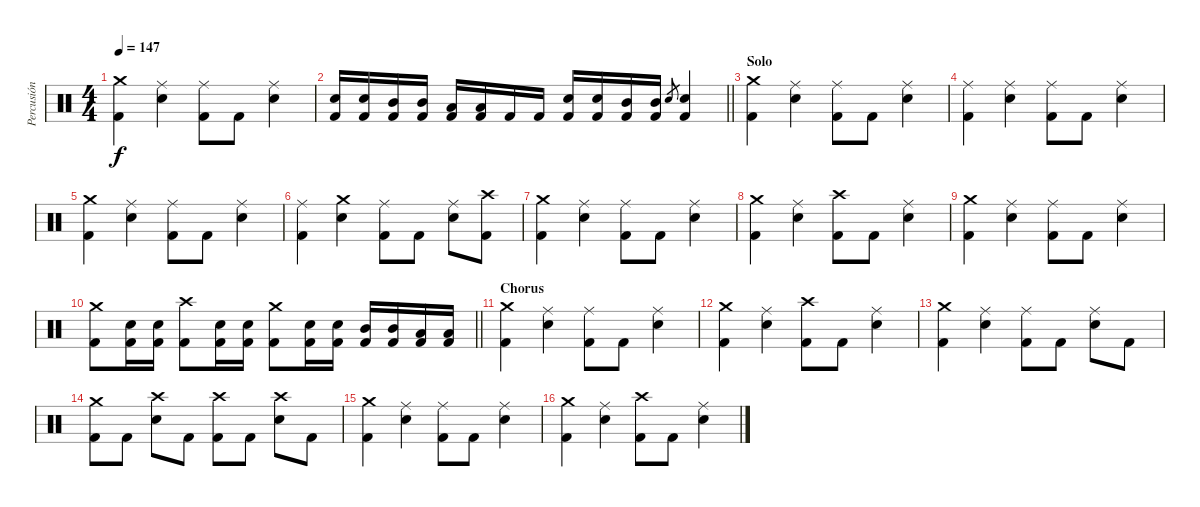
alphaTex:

\track ("Percusión" "Percusión") {instrument percussion}
\staff {score}
\articulation defaults
\ts (4 4)
\tempo 147
\clef neutral
\ks c
("Crash medium (hit)" "Kick (hit) 2").4{dy f} ("Ride (middle)" "Snare (hit) 2").4 ("Ride (middle)" "Kick (hit) 2").8 "Kick (hit) 2".8 ("Ride (middle)" "Snare (hit) 2").4 |
\barLineRight lightlight
("Snare (hit) 2" "Kick (hit) 2").16 ("Snare (hit) 2" "Kick (hit) 2").16 ("Mid Tom (hit)" "Kick (hit) 2").16 ("Mid Tom (hit)" "Kick (hit) 2").16 ("Low Tom (hit)" "Kick (hit) 2").16 ("Low Tom (hit)" "Kick (hit) 2").16 "Kick (hit) 2".16 "Kick (hit) 2".16 ("Snare (hit) 2" "Kick (hit) 2").16 ("Snare (hit) 2" "Kick (hit) 2").16 ("Mid Tom (hit)" "Kick (hit) 2").16 ("Mid Tom (hit)" "Kick (hit) 2").16 "Snare (hit) 2".8{gr} ("Snare (hit) 2" "Kick (hit) 2").4 |
\section ("" "Solo")
("Crash medium (hit)" "Kick (hit) 2").4 ("Ride (middle)" "Snare (hit) 2").4 ("Ride (middle)" "Kick (hit) 2").8 "Kick (hit) 2".8 ("Ride (middle)" "Snare (hit) 2").4 |
("Ride (middle)" "Kick (hit) 2").4 ("Ride (middle)" "Snare (hit) 2").4 ("Ride (middle)" "Kick (hit) 2").8 "Kick (hit) 2".8 ("Ride (middle)" "Snare (hit) 2").4 |
("Crash medium (hit)" "Kick (hit) 2").4 ("Ride (middle)" "Snare (hit) 2").4 ("Ride (middle)" "Kick (hit) 2").8 "Kick (hit) 2".8 ("Ride (middle)" "Snare (hit) 2").4 |
("Ride (middle)" "Kick (hit) 2").4 ("Crash medium (hit)" "Snare (hit) 2").4 ("Ride (middle)" "Kick (hit) 2").8 "Kick (hit) 2".8 ("Ride (middle)" "Snare (hit) 2").8 ("Crash high (hit)" "Kick (hit) 2").8 |
("Crash medium (hit)" "Kick (hit) 2").4 ("Ride (middle)" "Snare (hit) 2").4 ("Ride (middle)" "Kick (hit) 2").8 "Kick (hit) 2".8 ("Ride (middle)" "Snare (hit) 2").4 |
("Crash medium (hit)" "Kick (hit) 2").4 ("Ride (middle)" "Snare (hit) 2").4 ("Crash high (hit)" "Kick (hit) 2").8 "Kick (hit) 2".8 ("Ride (middle)" "Snare (hit) 2").4 |
("Crash medium (hit)" "Kick (hit) 2").4 ("Ride (middle)" "Snare (hit) 2").4 ("Ride (middle)" "Kick (hit) 2").8 "Kick (hit) 2".8 ("Ride (middle)" "Snare (hit) 2").4 |
\barLineRight lightlight
("Crash medium (hit)" "Kick (hit) 2").8 ("Snare (hit) 2" "Kick (hit) 2").16 ("Snare (hit) 2" "Kick (hit) 2").16 ("Crash high (hit)" "Kick (hit) 2").8 ("Snare (hit) 2" "Kick (hit) 2").16 ("Snare (hit) 2" "Kick (hit) 2").16 ("Crash medium (hit)" "Kick (hit) 2").8 ("Snare (hit) 2" "Kick (hit) 2").16 ("Snare (hit) 2" "Kick (hit) 2").16 ("Mid Tom (hit)" "Kick (hit) 2").16 ("Mid Tom (hit)" "Kick (hit) 2").16 ("Low Tom (hit)" "Kick (hit) 2").16 ("Low Tom (hit)" "Kick (hit) 2").16 |
\section ("" "Chorus")
("Crash medium (hit)" "Kick (hit) 2").4 ("Ride (middle)" "Snare (hit) 2").4 ("Ride (middle)" "Kick (hit) 2").8 "Kick (hit) 2".8 ("Ride (middle)" "Snare (hit) 2").4 |
("Crash medium (hit)" "Kick (hit) 2").4 ("Ride (middle)" "Snare (hit) 2").4 ("Crash high (hit)" "Kick (hit) 2").8 "Kick (hit) 2".8 ("Ride (middle)" "Snare (hit) 2").4 |
("Crash medium (hit)" "Kick (hit) 2").4 ("Ride (middle)" "Snare (hit) 2").4 ("Ride (middle)" "Kick (hit) 2").8 "Kick (hit) 2".8 ("Ride (middle)" "Snare (hit) 2").8 "Kick (hit) 2".8 |
("Crash medium (hit)" "Kick (hit) 2").8 "Kick (hit) 2".8 ("Crash high (hit)" "Snare (hit) 2").8 "Kick (hit) 2".8 ("Crash high (hit)" "Kick (hit) 2").8 "Kick (hit) 2".8 ("Crash high (hit)" "Snare (hit) 2").8 "Kick (hit) 2".8 |
("Crash medium (hit)" "Kick (hit) 2").4 ("Ride (middle)" "Snare (hit) 2").4 ("Ride (middle)" "Kick (hit) 2").8 "Kick (hit) 2".8 ("Ride (middle)" "Snare (hit) 2").4 |
("Crash medium (hit)" "Kick (hit) 2").4 ("Ride (middle)" "Snare (hit) 2").4 ("Crash high (hit)" "Kick (hit) 2").8 "Kick (hit) 2".8 ("Ride (middle)" "Snare (hit) 2").4
